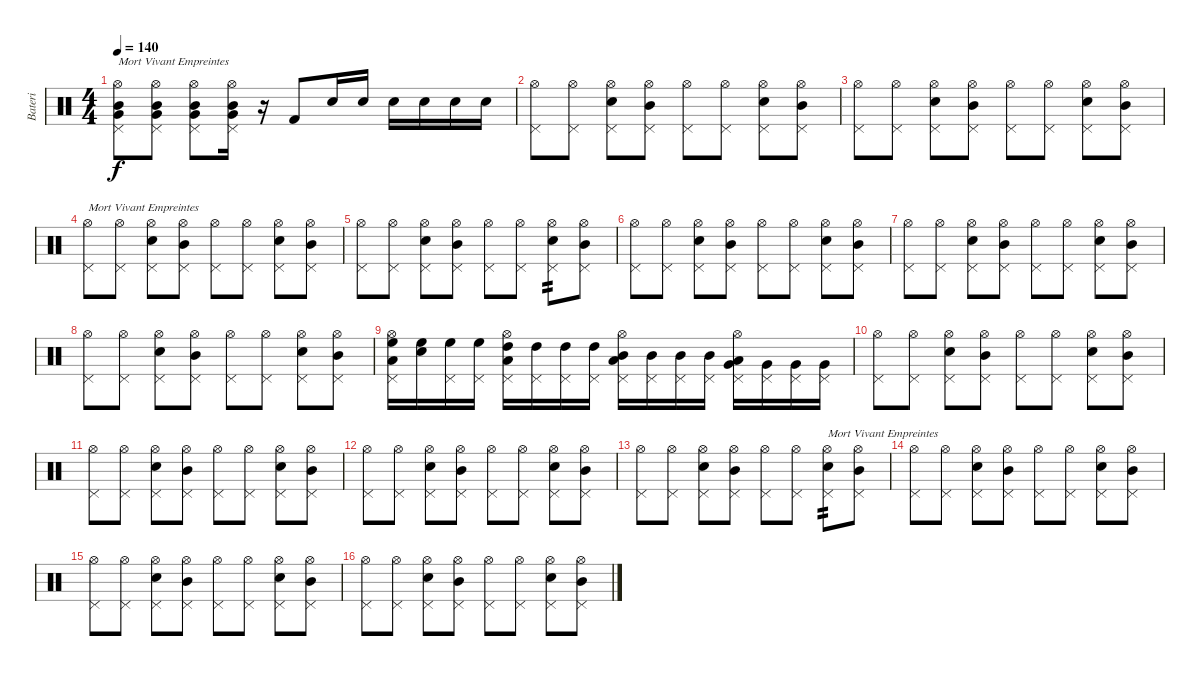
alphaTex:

\track ("Bateri" "Bateri") {instrument percussion}
\staff {score}
\articulation defaults
\ts (4 4)
\tempo 140
\clef neutral
\ks c
("Hi-Hat (open)" "Very Low Tom (hit)" "Mid Tom (hit)" "Pedal Hi-Hat (hit)").8{txt "Mort Vivant Empreintes" dy f} ("Hi-Hat (open)" "Very Low Tom (hit)" "Mid Tom (hit)" "Pedal Hi-Hat (hit)").8 ("Hi-Hat (open)" "Very Low Tom (hit)" "Mid Tom (hit)" "Pedal Hi-Hat (hit)").8 ("Hi-Hat (open)" "Very Low Tom (hit)" "Mid Tom (hit)" "Pedal Hi-Hat (hit)").16 r.16 "Kick (hit) 2".8 "Snare (hit) 2".16 "Snare (hit) 2".16 "Snare (hit) 2".16 "Snare (hit) 2".16 "Snare (hit) 2".16 "Snare (hit) 2".16 |
("Hi-Hat (open)" "Pedal Hi-Hat (hit)").8 ("Hi-Hat (open)" "Pedal Hi-Hat (hit)").8 ("Hi-Hat (open)" "Snare (hit) 2" "Pedal Hi-Hat (hit)").8 ("Hi-Hat (open)" "Mid Tom (hit)" "Pedal Hi-Hat (hit)").8 ("Hi-Hat (open)" "Pedal Hi-Hat (hit)").8 ("Hi-Hat (open)" "Pedal Hi-Hat (hit)").8 ("Hi-Hat (open)" "Snare (hit) 2" "Pedal Hi-Hat (hit)").8 ("Hi-Hat (open)" "Mid Tom (hit)" "Pedal Hi-Hat (hit)").8 |
("Hi-Hat (open)" "Pedal Hi-Hat (hit)").8 ("Hi-Hat (open)" "Pedal Hi-Hat (hit)").8 ("Hi-Hat (open)" "Snare (hit) 2" "Pedal Hi-Hat (hit)").8 ("Hi-Hat (open)" "Mid Tom (hit)" "Pedal Hi-Hat (hit)").8 ("Hi-Hat (open)" "Pedal Hi-Hat (hit)").8 ("Hi-Hat (open)" "Pedal Hi-Hat (hit)").8 ("Hi-Hat (open)" "Snare (hit) 2" "Pedal Hi-Hat (hit)").8 ("Hi-Hat (open)" "Mid Tom (hit)" "Pedal Hi-Hat (hit)").8 |
("Hi-Hat (open)" "Pedal Hi-Hat (hit)").8{txt "Mort Vivant Empreintes"} ("Hi-Hat (open)" "Pedal Hi-Hat (hit)").8 ("Hi-Hat (open)" "Snare (hit) 2" "Pedal Hi-Hat (hit)").8 ("Hi-Hat (open)" "Mid Tom (hit)" "Pedal Hi-Hat (hit)").8 ("Hi-Hat (open)" "Pedal Hi-Hat (hit)").8 ("Hi-Hat (open)" "Pedal Hi-Hat (hit)").8 ("Hi-Hat (open)" "Snare (hit) 2" "Pedal Hi-Hat (hit)").8 ("Hi-Hat (open)" "Mid Tom (hit)" "Pedal Hi-Hat (hit)").8 |
("Hi-Hat (open)" "Pedal Hi-Hat (hit)").8 ("Hi-Hat (open)" "Pedal Hi-Hat (hit)").8 ("Hi-Hat (open)" "Snare (hit) 2" "Pedal Hi-Hat (hit)").8 ("Hi-Hat (open)" "Mid Tom (hit)" "Pedal Hi-Hat (hit)").8 ("Hi-Hat (open)" "Pedal Hi-Hat (hit)").8 ("Hi-Hat (open)" "Pedal Hi-Hat (hit)").8 ("Hi-Hat (open)" "Snare (hit) 2" "Pedal Hi-Hat (hit)").8{tp 2} ("Hi-Hat (open)" "Mid Tom (hit)" "Pedal Hi-Hat (hit)").8 |
("Hi-Hat (open)" "Pedal Hi-Hat (hit)").8 ("Hi-Hat (open)" "Pedal Hi-Hat (hit)").8 ("Hi-Hat (open)" "Snare (hit) 2" "Pedal Hi-Hat (hit)").8 ("Hi-Hat (open)" "Mid Tom (hit)" "Pedal Hi-Hat (hit)").8 ("Hi-Hat (open)" "Pedal Hi-Hat (hit)").8 ("Hi-Hat (open)" "Pedal Hi-Hat (hit)").8 ("Hi-Hat (open)" "Snare (hit) 2" "Pedal Hi-Hat (hit)").8 ("Hi-Hat (open)" "Mid Tom (hit)" "Pedal Hi-Hat (hit)").8 |
("Hi-Hat (open)" "Pedal Hi-Hat (hit)").8 ("Hi-Hat (open)" "Pedal Hi-Hat (hit)").8 ("Hi-Hat (open)" "Snare (hit) 2" "Pedal Hi-Hat (hit)").8 ("Hi-Hat (open)" "Mid Tom (hit)" "Pedal Hi-Hat (hit)").8 ("Hi-Hat (open)" "Pedal Hi-Hat (hit)").8 ("Hi-Hat (open)" "Pedal Hi-Hat (hit)").8 ("Hi-Hat (open)" "Snare (hit) 2" "Pedal Hi-Hat (hit)").8 ("Hi-Hat (open)" "Mid Tom (hit)" "Pedal Hi-Hat (hit)").8 |
("Hi-Hat (open)" "Pedal Hi-Hat (hit)").8 ("Hi-Hat (open)" "Pedal Hi-Hat (hit)").8 ("Hi-Hat (open)" "Snare (hit) 2" "Pedal Hi-Hat (hit)").8 ("Hi-Hat (open)" "Mid Tom (hit)" "Pedal Hi-Hat (hit)").8 ("Hi-Hat (open)" "Pedal Hi-Hat (hit)").8 ("Hi-Hat (open)" "Pedal Hi-Hat (hit)").8 ("Hi-Hat (open)" "Snare (hit) 2" "Pedal Hi-Hat (hit)").8 ("Hi-Hat (open)" "Mid Tom (hit)" "Pedal Hi-Hat (hit)").8 |
("Hi-Hat (open)" "High Floor Tom (hit)" "Low Tom (hit)" "Pedal Hi-Hat (hit)").16 ("High Floor Tom (hit)" "Snare (hit)").16 ("High Floor Tom (hit)" "Pedal Hi-Hat (hit)").16 ("High Floor Tom (hit)" "Pedal Hi-Hat (hit)").16 ("Hi-Hat (open)" "High Tom (hit)" "Low Tom (hit)" "Pedal Hi-Hat (hit)").16 ("High Tom (hit)" "Pedal Hi-Hat (hit)").16 ("High Tom (hit)" "Pedal Hi-Hat (hit)").16 ("High Tom (hit)" "Pedal Hi-Hat (hit)").16 ("Hi-Hat (open)" "Mid Tom (hit)" "Low Tom (hit)" "Pedal Hi-Hat (hit)").16 ("Mid Tom (hit)" "Pedal Hi-Hat (hit)").16 ("Mid Tom (hit)" "Pedal Hi-Hat (hit)").16 ("Mid Tom (hit)" "Pedal Hi-Hat (hit)").16 ("Hi-Hat (open)" "Very Low Tom (hit)" "Low Tom (hit)" "Pedal Hi-Hat (hit)").16 ("Very Low Tom (hit)" "Pedal Hi-Hat (hit)").16 ("Very Low Tom (hit)" "Pedal Hi-Hat (hit)").16 ("Very Low Tom (hit)" "Pedal Hi-Hat (hit)").16 |
("Hi-Hat (open)" "Pedal Hi-Hat (hit)").8 ("Hi-Hat (open)" "Pedal Hi-Hat (hit)").8 ("Hi-Hat (open)" "Snare (hit) 2" "Pedal Hi-Hat (hit)").8 ("Hi-Hat (open)" "Mid Tom (hit)" "Pedal Hi-Hat (hit)").8 ("Hi-Hat (open)" "Pedal Hi-Hat (hit)").8 ("Hi-Hat (open)" "Pedal Hi-Hat (hit)").8 ("Hi-Hat (open)" "Snare (hit) 2" "Pedal Hi-Hat (hit)").8 ("Hi-Hat (open)" "Mid Tom (hit)" "Pedal Hi-Hat (hit)").8 |
("Hi-Hat (open)" "Pedal Hi-Hat (hit)").8 ("Hi-Hat (open)" "Pedal Hi-Hat (hit)").8 ("Hi-Hat (open)" "Snare (hit) 2" "Pedal Hi-Hat (hit)").8 ("Hi-Hat (open)" "Mid Tom (hit)" "Pedal Hi-Hat (hit)").8 ("Hi-Hat (open)" "Pedal Hi-Hat (hit)").8 ("Hi-Hat (open)" "Pedal Hi-Hat (hit)").8 ("Hi-Hat (open)" "Snare (hit) 2" "Pedal Hi-Hat (hit)").8 ("Hi-Hat (open)" "Mid Tom (hit)" "Pedal Hi-Hat (hit)").8 |
("Hi-Hat (open)" "Pedal Hi-Hat (hit)").8 ("Hi-Hat (open)" "Pedal Hi-Hat (hit)").8 ("Hi-Hat (open)" "Snare (hit) 2" "Pedal Hi-Hat (hit)").8 ("Hi-Hat (open)" "Mid Tom (hit)" "Pedal Hi-Hat (hit)").8 ("Hi-Hat (open)" "Pedal Hi-Hat (hit)").8 ("Hi-Hat (open)" "Pedal Hi-Hat (hit)").8 ("Hi-Hat (open)" "Snare (hit) 2" "Pedal Hi-Hat (hit)").8 ("Hi-Hat (open)" "Mid Tom (hit)" "Pedal Hi-Hat (hit)").8 |
("Hi-Hat (open)" "Pedal Hi-Hat (hit)").8 ("Hi-Hat (open)" "Pedal Hi-Hat (hit)").8 ("Hi-Hat (open)" "Snare (hit) 2" "Pedal Hi-Hat (hit)").8 ("Hi-Hat (open)" "Mid Tom (hit)" "Pedal Hi-Hat (hit)").8 ("Hi-Hat (open)" "Pedal Hi-Hat (hit)").8 ("Hi-Hat (open)" "Pedal Hi-Hat (hit)").8 ("Hi-Hat (open)" "Snare (hit) 2" "Pedal Hi-Hat (hit)").8{txt "Mort Vivant Empreintes" tp 2} ("Hi-Hat (open)" "Mid Tom (hit)" "Pedal Hi-Hat (hit)").8 |
("Hi-Hat (open)" "Pedal Hi-Hat (hit)").8 ("Hi-Hat (open)" "Pedal Hi-Hat (hit)").8 ("Hi-Hat (open)" "Snare (hit) 2" "Pedal Hi-Hat (hit)").8 ("Hi-Hat (open)" "Mid Tom (hit)" "Pedal Hi-Hat (hit)").8 ("Hi-Hat (open)" "Pedal Hi-Hat (hit)").8 ("Hi-Hat (open)" "Pedal Hi-Hat (hit)").8 ("Hi-Hat (open)" "Snare (hit) 2" "Pedal Hi-Hat (hit)").8 ("Hi-Hat (open)" "Mid Tom (hit)" "Pedal Hi-Hat (hit)").8 |
("Hi-Hat (open)" "Pedal Hi-Hat (hit)").8 ("Hi-Hat (open)" "Pedal Hi-Hat (hit)").8 ("Hi-Hat (open)" "Snare (hit) 2" "Pedal Hi-Hat (hit)").8 ("Hi-Hat (open)" "Mid Tom (hit)" "Pedal Hi-Hat (hit)").8 ("Hi-Hat (open)" "Pedal Hi-Hat (hit)").8 ("Hi-Hat (open)" "Pedal Hi-Hat (hit)").8 ("Hi-Hat (open)" "Snare (hit) 2" "Pedal Hi-Hat (hit)").8 ("Hi-Hat (open)" "Mid Tom (hit)" "Pedal Hi-Hat (hit)").8 |
("Hi-Hat (open)" "Pedal Hi-Hat (hit)").8 ("Hi-Hat (open)" "Pedal Hi-Hat (hit)").8 ("Hi-Hat (open)" "Snare (hit) 2" "Pedal Hi-Hat (hit)").8 ("Hi-Hat (open)" "Mid Tom (hit)" "Pedal Hi-Hat (hit)").8 ("Hi-Hat (open)" "Pedal Hi-Hat (hit)").8 ("Hi-Hat (open)" "Pedal Hi-Hat (hit)").8 ("Hi-Hat (open)" "Snare (hit) 2" "Pedal Hi-Hat (hit)").8 ("Hi-Hat (open)" "Mid Tom (hit)" "Pedal Hi-Hat (hit)").8
